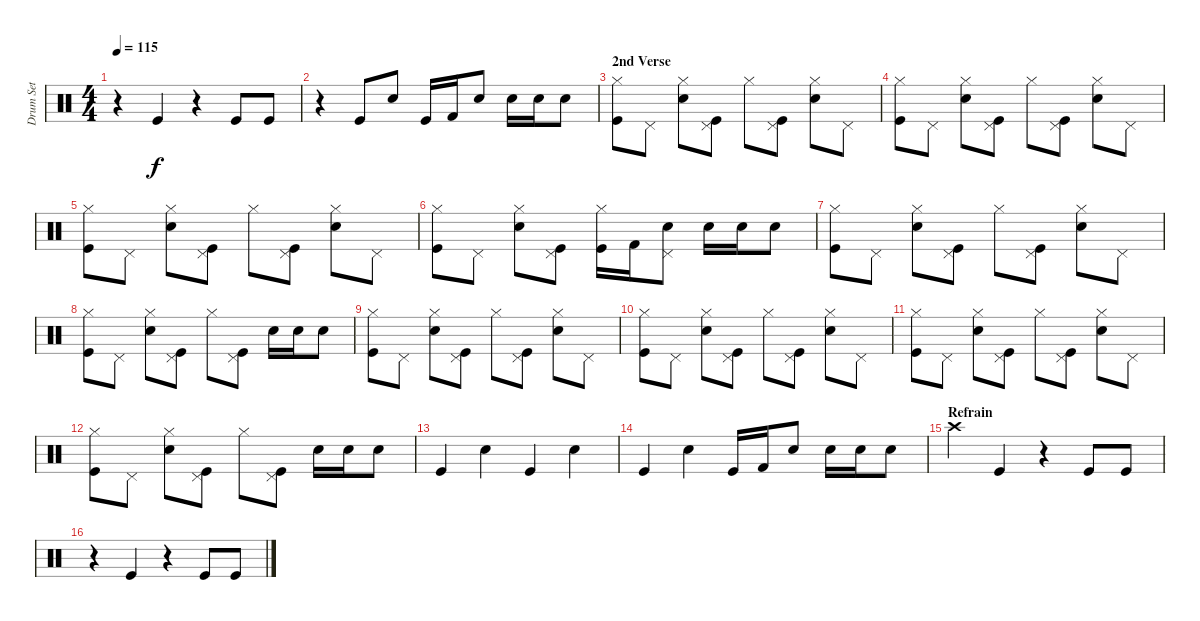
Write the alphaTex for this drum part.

\track ("Drum Set" "Drum Set") {instrument percussion}
\staff {score}
\articulation defaults
\ts (4 4)
\tempo 115
\clef neutral
\ks c
r.4{dy f} "Kick (hit)".4 r.4 "Kick (hit)".8 "Kick (hit)".8 |
r.4 "Kick (hit)".8 "Electric Snare (hit)".8 "Kick (hit)".16 "Kick (hit) 2".16 "Electric Snare (hit)".8 "Electric Snare (hit)".16 "Electric Snare (hit)".16 "Electric Snare (hit)".8 |
\section ("" "2nd Verse")
("Hi-Hat (closed)" "Kick (hit)").8 "Pedal Hi-Hat (hit)".8 ("Hi-Hat (closed)" "Electric Snare (hit)").8 ("Pedal Hi-Hat (hit)" "Kick (hit)").8 "Hi-Hat (closed)".8 ("Pedal Hi-Hat (hit)" "Kick (hit)").8 ("Hi-Hat (closed)" "Electric Snare (hit)").8 "Pedal Hi-Hat (hit)".8 |
("Hi-Hat (closed)" "Kick (hit)").8 "Pedal Hi-Hat (hit)".8 ("Hi-Hat (closed)" "Electric Snare (hit)").8 ("Pedal Hi-Hat (hit)" "Kick (hit)").8 "Hi-Hat (closed)".8 ("Pedal Hi-Hat (hit)" "Kick (hit)").8 ("Hi-Hat (closed)" "Electric Snare (hit)").8 "Pedal Hi-Hat (hit)".8 |
("Hi-Hat (closed)" "Kick (hit)").8 "Pedal Hi-Hat (hit)".8 ("Hi-Hat (closed)" "Electric Snare (hit)").8 ("Pedal Hi-Hat (hit)" "Kick (hit)").8 "Hi-Hat (closed)".8 ("Pedal Hi-Hat (hit)" "Kick (hit)").8 ("Hi-Hat (closed)" "Electric Snare (hit)").8 "Pedal Hi-Hat (hit)".8 |
("Hi-Hat (closed)" "Kick (hit)").8 "Pedal Hi-Hat (hit)".8 ("Hi-Hat (closed)" "Electric Snare (hit)").8 ("Pedal Hi-Hat (hit)" "Kick (hit)").8 ("Hi-Hat (closed)" "Kick (hit)").16 "Kick (hit) 2".16 ("Pedal Hi-Hat (hit)" "Electric Snare (hit)").8 "Electric Snare (hit)".16 "Electric Snare (hit)".16 "Electric Snare (hit)".8 |
("Hi-Hat (closed)" "Kick (hit)").8 "Pedal Hi-Hat (hit)".8 ("Hi-Hat (closed)" "Electric Snare (hit)").8 ("Pedal Hi-Hat (hit)" "Kick (hit)").8 "Hi-Hat (closed)".8 ("Pedal Hi-Hat (hit)" "Kick (hit)").8 ("Hi-Hat (closed)" "Electric Snare (hit)").8 "Pedal Hi-Hat (hit)".8 |
("Hi-Hat (closed)" "Kick (hit)").8 "Pedal Hi-Hat (hit)".8 ("Hi-Hat (closed)" "Electric Snare (hit)").8 ("Pedal Hi-Hat (hit)" "Kick (hit)").8 "Hi-Hat (closed)".8 ("Pedal Hi-Hat (hit)" "Kick (hit)").8 "Electric Snare (hit)".16 "Electric Snare (hit)".16 "Electric Snare (hit)".8 |
("Hi-Hat (closed)" "Kick (hit)").8 "Pedal Hi-Hat (hit)".8 ("Hi-Hat (closed)" "Electric Snare (hit)").8 ("Pedal Hi-Hat (hit)" "Kick (hit)").8 "Hi-Hat (closed)".8 ("Pedal Hi-Hat (hit)" "Kick (hit)").8 ("Hi-Hat (closed)" "Electric Snare (hit)").8 "Pedal Hi-Hat (hit)".8 |
("Hi-Hat (closed)" "Kick (hit)").8 "Pedal Hi-Hat (hit)".8 ("Hi-Hat (closed)" "Electric Snare (hit)").8 ("Pedal Hi-Hat (hit)" "Kick (hit)").8 "Hi-Hat (closed)".8 ("Pedal Hi-Hat (hit)" "Kick (hit)").8 ("Hi-Hat (closed)" "Electric Snare (hit)").8 "Pedal Hi-Hat (hit)".8 |
("Hi-Hat (closed)" "Kick (hit)").8 "Pedal Hi-Hat (hit)".8 ("Hi-Hat (closed)" "Electric Snare (hit)").8 ("Pedal Hi-Hat (hit)" "Kick (hit)").8 "Hi-Hat (closed)".8 ("Pedal Hi-Hat (hit)" "Kick (hit)").8 ("Hi-Hat (closed)" "Electric Snare (hit)").8 "Pedal Hi-Hat (hit)".8 |
("Hi-Hat (closed)" "Kick (hit)").8 "Pedal Hi-Hat (hit)".8 ("Hi-Hat (closed)" "Electric Snare (hit)").8 ("Pedal Hi-Hat (hit)" "Kick (hit)").8 "Hi-Hat (closed)".8 ("Pedal Hi-Hat (hit)" "Kick (hit)").8 "Electric Snare (hit)".16 "Electric Snare (hit)".16 "Electric Snare (hit)".8 |
"Kick (hit)".4 "Electric Snare (hit)".4 "Kick (hit)".4 "Electric Snare (hit)".4 |
"Kick (hit)".4 "Electric Snare (hit)".4 "Kick (hit)".16 "Kick (hit) 2".16 "Electric Snare (hit)".8 "Electric Snare (hit)".16 "Electric Snare (hit)".16 "Electric Snare (hit)".8 |
\section ("" "Refrain")
"Crash high (hit)".4 "Kick (hit)".4 r.4 "Kick (hit)".8 "Kick (hit)".8 |
r.4 "Kick (hit)".4 r.4 "Kick (hit)".8 "Kick (hit)".8
